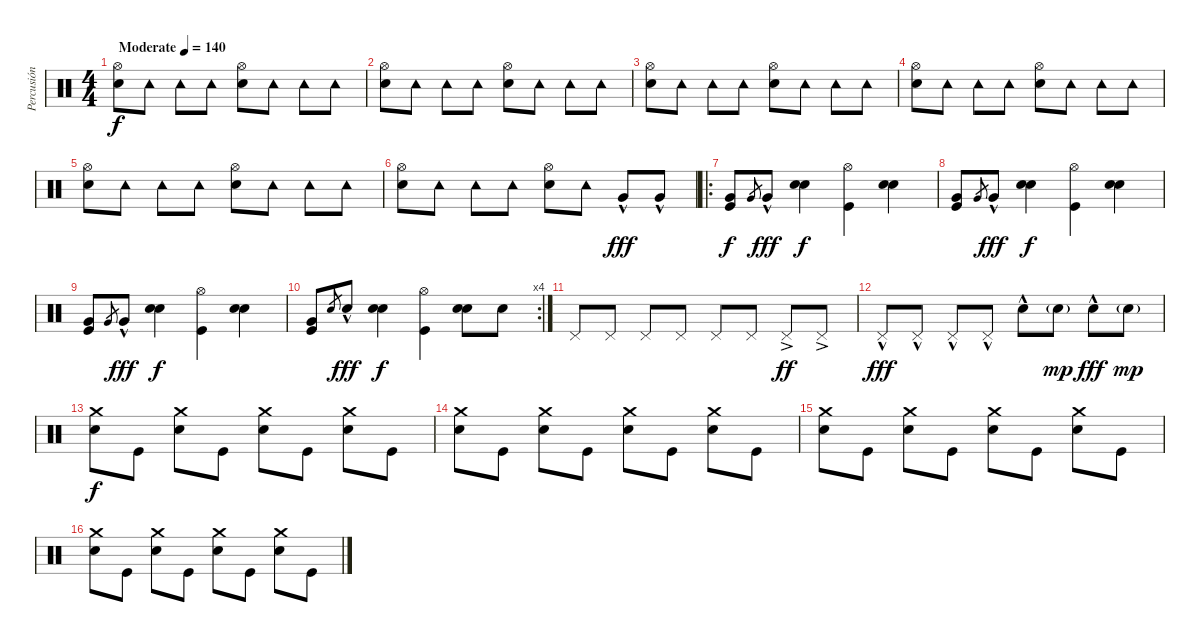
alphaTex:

\track ("Percusión" "Percusión") {instrument percussion}
\staff {score}
\articulation defaults
\ts (4 4)
\tempo (140 "Moderate")
\clef neutral
\ks c
("Electric Snare (hit)" "Hi-Hat (open)").8{dy f} "Tambourine (hit)".8 "Tambourine (hit)".8 "Tambourine (hit)".8 ("Electric Snare (hit)" "Hi-Hat (open)").8 "Tambourine (hit)".8 "Tambourine (hit)".8 "Tambourine (hit)".8 |
("Electric Snare (hit)" "Hi-Hat (open)").8 "Tambourine (hit)".8 "Tambourine (hit)".8 "Tambourine (hit)".8 ("Electric Snare (hit)" "Hi-Hat (open)").8 "Tambourine (hit)".8 "Tambourine (hit)".8 "Tambourine (hit)".8 |
("Electric Snare (hit)" "Hi-Hat (open)").8 "Tambourine (hit)".8 "Tambourine (hit)".8 "Tambourine (hit)".8 ("Electric Snare (hit)" "Hi-Hat (open)").8 "Tambourine (hit)".8 "Tambourine (hit)".8 "Tambourine (hit)".8 |
("Electric Snare (hit)" "Hi-Hat (open)").8 "Tambourine (hit)".8 "Tambourine (hit)".8 "Tambourine (hit)".8 ("Electric Snare (hit)" "Hi-Hat (open)").8 "Tambourine (hit)".8 "Tambourine (hit)".8 "Tambourine (hit)".8 |
("Electric Snare (hit)" "Hi-Hat (open)").8 "Tambourine (hit)".8 "Tambourine (hit)".8 "Tambourine (hit)".8 ("Electric Snare (hit)" "Hi-Hat (open)").8 "Tambourine (hit)".8 "Tambourine (hit)".8 "Tambourine (hit)".8 |
("Electric Snare (hit)" "Hi-Hat (open)").8 "Tambourine (hit)".8 "Tambourine (hit)".8 "Tambourine (hit)".8 ("Electric Snare (hit)" "Hi-Hat (open)").8 "Tambourine (hit)".8 "Very Low Tom (hit)"{hac}.8{dy fff} "Very Low Tom (hit)"{hac}.8 |
\ro
("Very Low Tom (hit)" "Kick (hit)").8{dy f} "Very Low Tom (hit)".8{gr} "Very Low Tom (hit)"{hac}.8{dy fff} ("Electric Snare (hit)" "Electric Snare (hit)").4{dy f} ("Hi-Hat (open)" "Kick (hit)").4 ("Electric Snare (hit)" "Electric Snare (hit)").4 |
("Very Low Tom (hit)" "Kick (hit)").8 "Very Low Tom (hit)"{h}.8{gr} "Very Low Tom (hit)"{hac}.8{dy fff} ("Electric Snare (hit)" "Electric Snare (hit)").4{dy f} ("Hi-Hat (open)" "Kick (hit)").4 ("Electric Snare (hit)" "Electric Snare (hit)").4 |
("Very Low Tom (hit)" "Kick (hit)").8 "Very Low Tom (hit)".8{gr} "Very Low Tom (hit)"{hac}.8{dy fff} ("Electric Snare (hit)" "Electric Snare (hit)").4{dy f} ("Hi-Hat (open)" "Kick (hit)").4 ("Electric Snare (hit)" "Electric Snare (hit)").4 |
\rc 4
("Very Low Tom (hit)" "Kick (hit)").8 "Electric Snare (hit)".8{gr} "Electric Snare (hit)"{hac}.8{dy fff} ("Electric Snare (hit)" "Electric Snare (hit)").4{dy f} ("Hi-Hat (open)" "Kick (hit)").4 ("Electric Snare (hit)" "Electric Snare (hit)").8 "Electric Snare (hit)".8 |
"Pedal Hi-Hat (hit)".8 "Pedal Hi-Hat (hit)".8 "Pedal Hi-Hat (hit)".8 "Pedal Hi-Hat (hit)".8 "Pedal Hi-Hat (hit)".8 "Pedal Hi-Hat (hit)".8 "Pedal Hi-Hat (hit)"{ac}.8{dy ff} "Pedal Hi-Hat (hit)"{ac}.8 |
"Pedal Hi-Hat (hit)"{hac}.8{dy fff} "Pedal Hi-Hat (hit)"{hac}.8 "Pedal Hi-Hat (hit)"{hac}.8 "Pedal Hi-Hat (hit)"{hac}.8 "Electric Snare (hit)"{hac}.8 "Electric Snare (hit)"{g}.8{dy mp} "Electric Snare (hit)"{hac}.8{dy fff} "Electric Snare (hit)"{g}.8{dy mp} |
("Crash medium (hit)" "Electric Snare (hit)").8{dy f} "Kick (hit)".8 ("Crash medium (hit)" "Electric Snare (hit)").8 "Kick (hit)".8 ("Crash medium (hit)" "Electric Snare (hit)").8 "Kick (hit)".8 ("Crash medium (hit)" "Electric Snare (hit)").8 "Kick (hit)".8 |
("Crash medium (hit)" "Electric Snare (hit)").8 "Kick (hit)".8 ("Crash medium (hit)" "Electric Snare (hit)").8 "Kick (hit)".8 ("Crash medium (hit)" "Electric Snare (hit)").8 "Kick (hit)".8 ("Crash medium (hit)" "Electric Snare (hit)").8 "Kick (hit)".8 |
("Crash medium (hit)" "Electric Snare (hit)").8 "Kick (hit)".8 ("Crash medium (hit)" "Electric Snare (hit)").8 "Kick (hit)".8 ("Crash medium (hit)" "Electric Snare (hit)").8 "Kick (hit)".8 ("Crash medium (hit)" "Electric Snare (hit)").8 "Kick (hit)".8 |
("Crash medium (hit)" "Electric Snare (hit)").8 "Kick (hit)".8 ("Crash medium (hit)" "Electric Snare (hit)").8 "Kick (hit)".8 ("Crash medium (hit)" "Electric Snare (hit)").8 "Kick (hit)".8 ("Crash medium (hit)" "Electric Snare (hit)").8 "Kick (hit)".8
